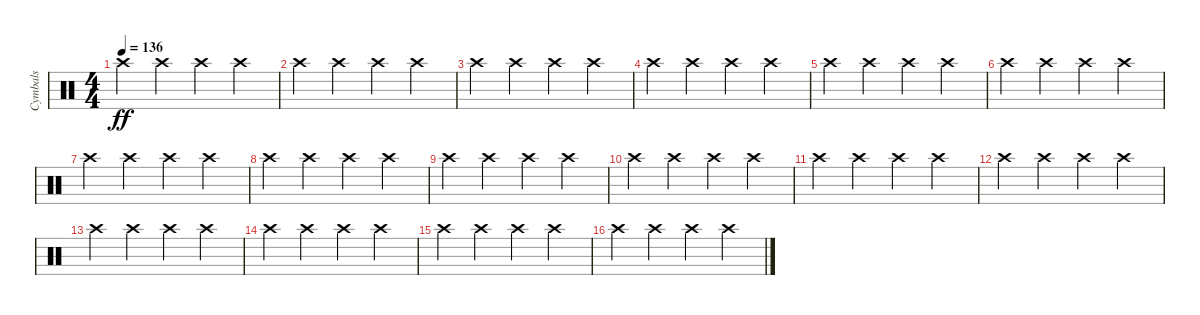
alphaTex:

\track ("Cymbals" "Cymbals") {instrument percussion}
\staff {score}
\articulation defaults
\ts (4 4)
\tempo 136
\clef neutral
\ks c "Crash high (hit)".4{dy ff} "Crash high (hit)".4 "Crash high (hit)".4 "Crash high (hit)".4
|
"Crash high (hit)".4 "Crash high (hit)".4 "Crash high (hit)".4 "Crash high (hit)".4 |
"Crash high (hit)".4{volume 6} "Crash high (hit)".4 "Crash high (hit)".4 "Crash high (hit)".4 |
"Crash high (hit)".4 "Crash high (hit)".4 "Crash high (hit)".4 "Crash high (hit)".4 |
"Crash high (hit)".4 "Crash high (hit)".4 "Crash high (hit)".4 "Crash high (hit)".4 |
"Crash high (hit)".4 "Crash high (hit)".4 "Crash high (hit)".4 "Crash high (hit)".4 |
"Crash high (hit)".4{volume 4} "Crash high (hit)".4 "Crash high (hit)".4 "Crash high (hit)".4 |
"Crash high (hit)".4 "Crash high (hit)".4 "Crash high (hit)".4 "Crash high (hit)".4 |
"Crash high (hit)".4 "Crash high (hit)".4 "Crash high (hit)".4 "Crash high (hit)".4 |
"Crash high (hit)".4 "Crash high (hit)".4 "Crash high (hit)".4 "Crash high (hit)".4 |
"Crash high (hit)".4{volume 2} "Crash high (hit)".4 "Crash high (hit)".4 "Crash high (hit)".4 |
"Crash high (hit)".4 "Crash high (hit)".4 "Crash high (hit)".4 "Crash high (hit)".4 |
"Crash high (hit)".4 "Crash high (hit)".4 "Crash high (hit)".4 "Crash high (hit)".4 |
"Crash high (hit)".4 "Crash high (hit)".4 "Crash high (hit)".4 "Crash high (hit)".4 |
"Crash high (hit)".4{volume 1} "Crash high (hit)".4 "Crash high (hit)".4 "Crash high (hit)".4 |
"Crash high (hit)".4 "Crash high (hit)".4 "Crash high (hit)".4 "Crash high (hit)".4
